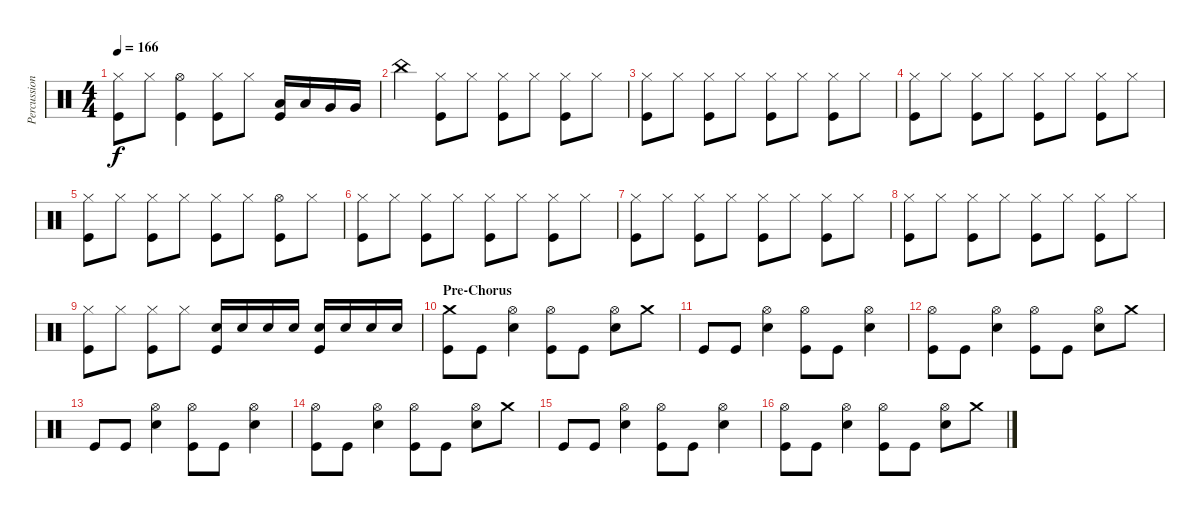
\track ("Percussion" "Percussion") {instrument percussion}
\staff {score}
\articulation defaults
\ts (4 4)
\tempo 166
\clef neutral
\ks c
("Hi-Hat (closed)" "Kick (hit)").8{dy f} "Hi-Hat (closed)".8 ("Hi-Hat (open)" "Kick (hit)").4 ("Hi-Hat (closed)" "Kick (hit)").8 "Hi-Hat (closed)".8 ("Low Tom (hit)" "Kick (hit)").16 "Low Tom (hit)".16 "Very Low Tom (hit)".16 "Very Low Tom (hit)".16 |
"China (hit)".4 ("Hi-Hat (closed)" "Kick (hit)").8 "Hi-Hat (closed)".8 ("Hi-Hat (closed)" "Kick (hit)").8 "Hi-Hat (closed)".8 ("Hi-Hat (closed)" "Kick (hit)").8 "Hi-Hat (closed)".8 |
("Hi-Hat (closed)" "Kick (hit)").8 "Hi-Hat (closed)".8 ("Hi-Hat (closed)" "Kick (hit)").8 "Hi-Hat (closed)".8 ("Hi-Hat (closed)" "Kick (hit)").8 "Hi-Hat (closed)".8 ("Hi-Hat (closed)" "Kick (hit)").8 "Hi-Hat (closed)".8 |
("Hi-Hat (closed)" "Kick (hit)").8 "Hi-Hat (closed)".8 ("Hi-Hat (closed)" "Kick (hit)").8 "Hi-Hat (closed)".8 ("Hi-Hat (closed)" "Kick (hit)").8 "Hi-Hat (closed)".8 ("Hi-Hat (closed)" "Kick (hit)").8 "Hi-Hat (closed)".8 |
("Hi-Hat (closed)" "Kick (hit)").8 "Hi-Hat (closed)".8 ("Hi-Hat (closed)" "Kick (hit)").8 "Hi-Hat (closed)".8 ("Hi-Hat (closed)" "Kick (hit)").8 "Hi-Hat (closed)".8 ("Hi-Hat (open)" "Kick (hit)").8 "Hi-Hat (closed)".8 |
("Hi-Hat (closed)" "Kick (hit)").8 "Hi-Hat (closed)".8 ("Hi-Hat (closed)" "Kick (hit)").8 "Hi-Hat (closed)".8 ("Hi-Hat (closed)" "Kick (hit)").8 "Hi-Hat (closed)".8 ("Hi-Hat (closed)" "Kick (hit)").8 "Hi-Hat (closed)".8 |
("Hi-Hat (closed)" "Kick (hit)").8 "Hi-Hat (closed)".8 ("Hi-Hat (closed)" "Kick (hit)").8 "Hi-Hat (closed)".8 ("Hi-Hat (closed)" "Kick (hit)").8 "Hi-Hat (closed)".8 ("Hi-Hat (closed)" "Kick (hit)").8 "Hi-Hat (closed)".8 |
("Hi-Hat (closed)" "Kick (hit)").8 "Hi-Hat (closed)".8 ("Hi-Hat (closed)" "Kick (hit)").8 "Hi-Hat (closed)".8 ("Hi-Hat (closed)" "Kick (hit)").8 "Hi-Hat (closed)".8 ("Hi-Hat (closed)" "Kick (hit)").8 "Hi-Hat (closed)".8 |
("Hi-Hat (closed)" "Kick (hit)").8 "Hi-Hat (closed)".8 ("Hi-Hat (closed)" "Kick (hit)").8 "Hi-Hat (closed)".8 ("Electric Snare (hit)" "Kick (hit)").16 "Electric Snare (hit)".16 "Electric Snare (hit)".16 "Electric Snare (hit)".16 ("Electric Snare (hit)" "Kick (hit)").16 "Electric Snare (hit)".16 "Electric Snare (hit)".16 "Electric Snare (hit)".16 |
\section ("" "Pre-Chorus")
("Crash medium (hit)" "Kick (hit)").8 "Kick (hit)".8 ("Hi-Hat (open)" "Electric Snare (hit)").4 ("Hi-Hat (open)" "Kick (hit)").8 "Kick (hit)".8 ("Hi-Hat (open)" "Electric Snare (hit)").8 "Crash medium (hit)".8 |
"Kick (hit)".8 "Kick (hit)".8 ("Hi-Hat (open)" "Electric Snare (hit)").4 ("Hi-Hat (open)" "Kick (hit)").8 "Kick (hit)".8 ("Hi-Hat (open)" "Electric Snare (hit)").4 |
("Hi-Hat (open)" "Kick (hit)").8 "Kick (hit)".8 ("Hi-Hat (open)" "Electric Snare (hit)").4 ("Hi-Hat (open)" "Kick (hit)").8 "Kick (hit)".8 ("Hi-Hat (open)" "Electric Snare (hit)").8 "Crash medium (hit)".8 |
"Kick (hit)".8 "Kick (hit)".8 ("Hi-Hat (open)" "Electric Snare (hit)").4 ("Hi-Hat (open)" "Kick (hit)").8 "Kick (hit)".8 ("Hi-Hat (open)" "Electric Snare (hit)").4 |
("Hi-Hat (open)" "Kick (hit)").8 "Kick (hit)".8 ("Hi-Hat (open)" "Electric Snare (hit)").4 ("Hi-Hat (open)" "Kick (hit)").8 "Kick (hit)".8 ("Hi-Hat (open)" "Electric Snare (hit)").8 "Crash medium (hit)".8 |
"Kick (hit)".8 "Kick (hit)".8 ("Hi-Hat (open)" "Electric Snare (hit)").4 ("Hi-Hat (open)" "Kick (hit)").8 "Kick (hit)".8 ("Hi-Hat (open)" "Electric Snare (hit)").4 |
("Hi-Hat (open)" "Kick (hit)").8 "Kick (hit)".8 ("Hi-Hat (open)" "Electric Snare (hit)").4 ("Hi-Hat (open)" "Kick (hit)").8 "Kick (hit)".8 ("Hi-Hat (open)" "Electric Snare (hit)").8 "Crash medium (hit)".8
